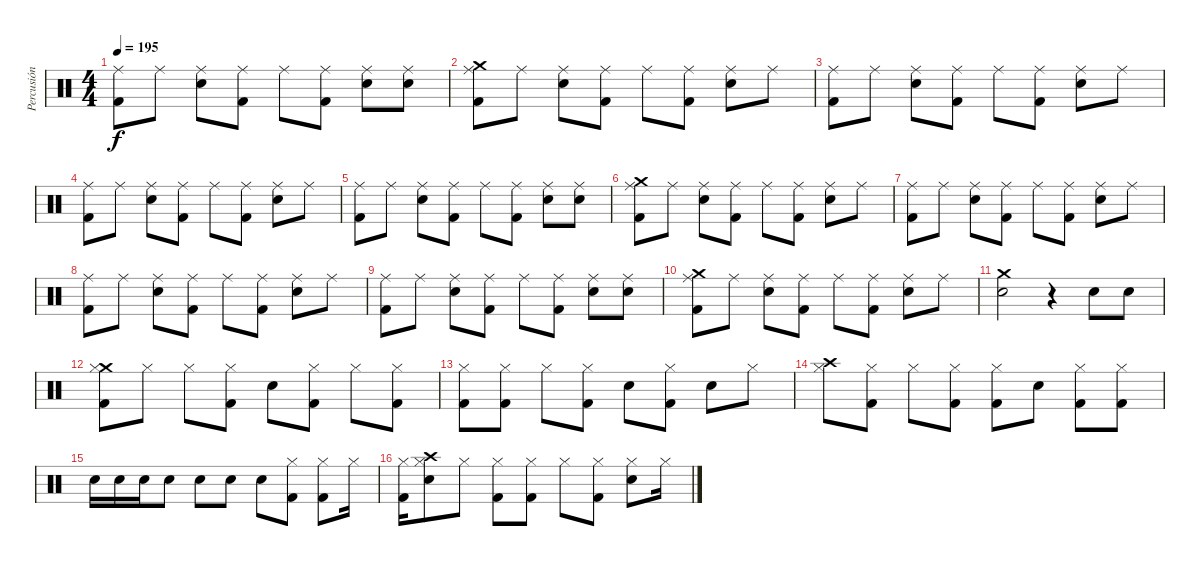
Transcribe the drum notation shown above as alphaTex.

\track ("Percusión" "Percusión") {instrument percussion}
\staff {score}
\articulation defaults
\ts (4 4)
\tempo 195
\clef neutral
\ks c
("Ride (middle)" "Kick (hit) 2").8{dy f} "Ride (middle)".8 ("Ride (middle)" "Snare (hit) 2").8 ("Ride (middle)" "Kick (hit) 2").8 "Ride (middle)".8 ("Ride (middle)" "Kick (hit) 2").8 ("Ride (middle)" "Snare (hit) 2").8 ("Ride (middle)" "Snare (hit) 2").8 |
("Crash medium (hit)" "Ride (middle)" "Kick (hit) 2").8 "Ride (middle)".8 ("Ride (middle)" "Snare (hit) 2").8 ("Ride (middle)" "Kick (hit) 2").8 "Ride (middle)".8 ("Ride (middle)" "Kick (hit) 2").8 ("Ride (middle)" "Snare (hit) 2").8 "Ride (middle)".8 |
("Ride (middle)" "Kick (hit) 2").8 "Ride (middle)".8 ("Ride (middle)" "Snare (hit) 2").8 ("Ride (middle)" "Kick (hit) 2").8 "Ride (middle)".8 ("Ride (middle)" "Kick (hit) 2").8 ("Ride (middle)" "Snare (hit) 2").8 "Ride (middle)".8 |
("Ride (middle)" "Kick (hit) 2").8 "Ride (middle)".8 ("Ride (middle)" "Snare (hit) 2").8 ("Ride (middle)" "Kick (hit) 2").8 "Ride (middle)".8 ("Ride (middle)" "Kick (hit) 2").8 ("Ride (middle)" "Snare (hit) 2").8 "Ride (middle)".8 |
("Ride (middle)" "Kick (hit) 2").8 "Ride (middle)".8 ("Ride (middle)" "Snare (hit) 2").8 ("Ride (middle)" "Kick (hit) 2").8 "Ride (middle)".8 ("Ride (middle)" "Kick (hit) 2").8 ("Ride (middle)" "Snare (hit) 2").8 ("Ride (middle)" "Snare (hit) 2").8 |
("Crash medium (hit)" "Ride (middle)" "Kick (hit) 2").8 "Ride (middle)".8 ("Ride (middle)" "Snare (hit) 2").8 ("Ride (middle)" "Kick (hit) 2").8 "Ride (middle)".8 ("Ride (middle)" "Kick (hit) 2").8 ("Ride (middle)" "Snare (hit) 2").8 "Ride (middle)".8 |
("Ride (middle)" "Kick (hit) 2").8 "Ride (middle)".8 ("Ride (middle)" "Snare (hit) 2").8 ("Ride (middle)" "Kick (hit) 2").8 "Ride (middle)".8 ("Ride (middle)" "Kick (hit) 2").8 ("Ride (middle)" "Snare (hit) 2").8 "Ride (middle)".8 |
("Ride (middle)" "Kick (hit) 2").8 "Ride (middle)".8 ("Ride (middle)" "Snare (hit) 2").8 ("Ride (middle)" "Kick (hit) 2").8 "Ride (middle)".8 ("Ride (middle)" "Kick (hit) 2").8 ("Ride (middle)" "Snare (hit) 2").8 "Ride (middle)".8 |
("Ride (middle)" "Kick (hit) 2").8 "Ride (middle)".8 ("Ride (middle)" "Snare (hit) 2").8 ("Ride (middle)" "Kick (hit) 2").8 "Ride (middle)".8 ("Ride (middle)" "Kick (hit) 2").8 ("Ride (middle)" "Snare (hit) 2").8 ("Ride (middle)" "Snare (hit) 2").8 |
("Crash medium (hit)" "Ride (middle)" "Kick (hit) 2").8 "Ride (middle)".8 ("Ride (middle)" "Snare (hit) 2").8 ("Ride (middle)" "Kick (hit) 2").8 "Ride (middle)".8 ("Ride (middle)" "Kick (hit) 2").8 ("Ride (middle)" "Snare (hit) 2").8 "Ride (middle)".8 |
("Crash medium (hit)" "Snare (hit) 2").2 r.4 "Snare (hit) 2".8 "Snare (hit) 2".8 |
("Crash medium (hit)" "Hi-Hat (closed)" "Kick (hit) 2").8 "Hi-Hat (closed)".8 "Hi-Hat (closed)".8 ("Hi-Hat (closed)" "Kick (hit) 2").8 "Snare (hit) 2".8 ("Hi-Hat (closed)" "Kick (hit) 2").8 "Hi-Hat (closed)".8 ("Hi-Hat (closed)" "Kick (hit) 2").8 |
("Hi-Hat (closed)" "Kick (hit) 2").8 ("Hi-Hat (closed)" "Kick (hit) 2").8 "Hi-Hat (closed)".8 ("Hi-Hat (closed)" "Kick (hit) 2").8 "Snare (hit) 2".8 ("Hi-Hat (closed)" "Kick (hit) 2").8 "Snare (hit) 2".8 "Hi-Hat (closed)".8 |
("Crash high (hit)" "Hi-Hat (closed)").8 ("Hi-Hat (closed)" "Kick (hit) 2").8 "Hi-Hat (closed)".8 ("Hi-Hat (closed)" "Kick (hit) 2").8 ("Hi-Hat (closed)" "Kick (hit) 2").8 "Snare (hit) 2".8 ("Hi-Hat (closed)" "Kick (hit) 2").8 ("Hi-Hat (closed)" "Kick (hit) 2").8 |
"Snare (hit) 2".16 "Snare (hit) 2".16 "Snare (hit) 2".16 "Snare (hit) 2".8 "Snare (hit) 2".8 "Snare (hit) 2".8 "Snare (hit) 2".8 ("Hi-Hat (closed)" "Kick (hit) 2").8 ("Hi-Hat (closed)" "Kick (hit) 2").8 "Hi-Hat (closed)".16 |
("Hi-Hat (closed)" "Kick (hit) 2").16 ("Hi-Hat (closed)" "Snare (hit) 2" "Crash high (hit)").8 "Hi-Hat (closed)".8 ("Hi-Hat (closed)" "Kick (hit) 2").8 ("Hi-Hat (closed)" "Kick (hit) 2").8 "Hi-Hat (closed)".8 ("Hi-Hat (closed)" "Kick (hit) 2").8 ("Hi-Hat (closed)" "Snare (hit) 2").8 "Hi-Hat (closed)".16
